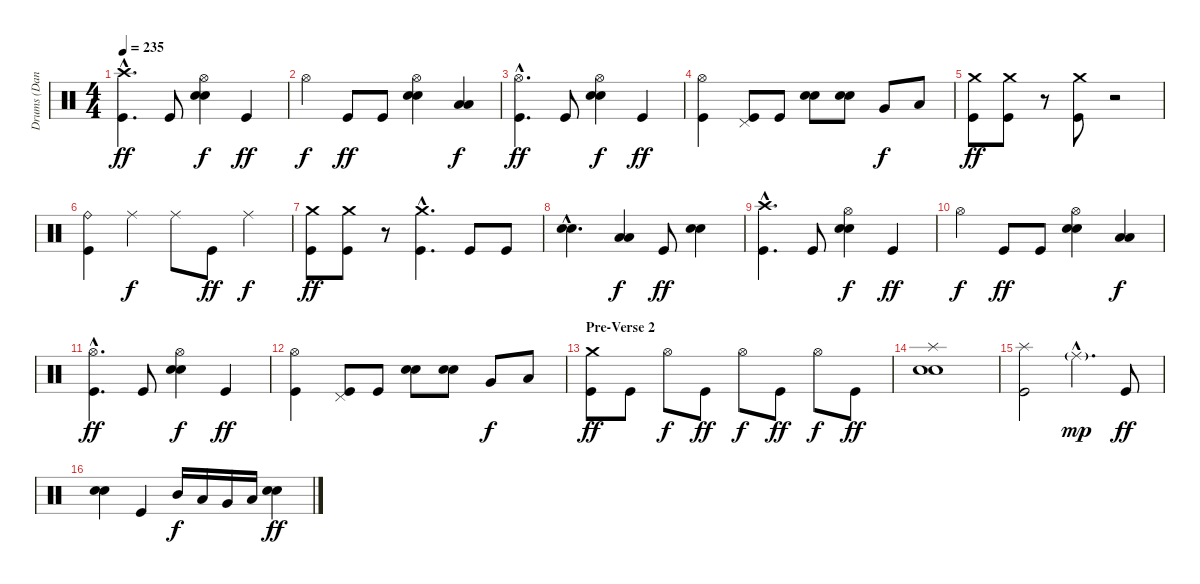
\track ("Drums (Dan)" "Drums (Dan") {instrument percussion}
\staff {score}
\articulation defaults
\ts (4 4)
\tempo 235
\clef neutral
\ks c
("Kick (hit)"{hac} "Crash high (hit)"{hac}).4{d dy ff} "Kick (hit)".8 ("Electric Snare (hit)" "Electric Snare (hit)" "Hi-Hat (open)").4{dy f} "Kick (hit)".4{dy ff} |
"Hi-Hat (open)".4{dy f} "Kick (hit)".8{dy ff} "Kick (hit)".8 ("Electric Snare (hit)" "Electric Snare (hit)" "Hi-Hat (open)").4 ("Low Floor Tom (hit)" "Low Floor Tom (hit)").4{dy f} |
("Kick (hit)"{hac} "Hi-Hat (open)"{hac}).4{d dy ff} "Kick (hit)".8 ("Electric Snare (hit)" "Electric Snare (hit)" "Hi-Hat (open)").4{dy f} "Kick (hit)".4{dy ff} |
("Kick (hit)" "Hi-Hat (open)").4 ("Kick (hit)" "Pedal Hi-Hat (hit)").8 "Kick (hit)".8 ("Electric Snare (hit)" "Electric Snare (hit)").8 ("Electric Snare (hit)" "Electric Snare (hit)").8 "Very Low Tom (hit)".8{dy f} "Low Floor Tom (hit)".8 |
("Kick (hit)" "Crash medium (hit)").8{dy ff} ("Kick (hit)" "Crash medium (hit)").8 r.8{volume 5} ("Kick (hit)" "Crash medium (hit)").8{volume 13} r.2 |
("Kick (hit)" "Ride (bell)").4 "Ride (middle)".4{dy f} "Ride (middle)".8 "Kick (hit)".8{dy ff} "Ride (middle)".4{dy f} |
("Kick (hit)" "Crash medium (hit)").8{dy ff} ("Kick (hit)" "Crash medium (hit)").8 r.8{volume 5} ("Kick (hit)"{hac} "Crash medium (hit)"{hac}).4{d volume 13} "Kick (hit)".8 "Kick (hit)".8 |
("Electric Snare (hit)"{hac} "Electric Snare (hit)"{hac}).4{d} ("Low Floor Tom (hit)" "Low Floor Tom (hit)").4{dy f} "Kick (hit)".8{dy ff} ("Electric Snare (hit)" "Electric Snare (hit)").4 |
("Kick (hit)"{hac} "Crash high (hit)"{hac}).4{d} "Kick (hit)".8 ("Electric Snare (hit)" "Electric Snare (hit)" "Hi-Hat (open)").4{dy f} "Kick (hit)".4{dy ff} |
"Hi-Hat (open)".4{dy f} "Kick (hit)".8{dy ff} "Kick (hit)".8 ("Electric Snare (hit)" "Electric Snare (hit)" "Hi-Hat (open)").4 ("Low Floor Tom (hit)" "Low Floor Tom (hit)").4{dy f} |
("Kick (hit)"{hac} "Hi-Hat (open)"{hac}).4{d dy ff} "Kick (hit)".8 ("Electric Snare (hit)" "Electric Snare (hit)" "Hi-Hat (open)").4{dy f} "Kick (hit)".4{dy ff} |
("Kick (hit)" "Hi-Hat (open)").4 ("Kick (hit)" "Pedal Hi-Hat (hit)").8 "Kick (hit)".8 ("Electric Snare (hit)" "Electric Snare (hit)").8 ("Electric Snare (hit)" "Electric Snare (hit)").8 "Very Low Tom (hit)".8{dy f} "Low Floor Tom (hit)".8 |
\section ("" "Pre-Verse 2")
("Kick (hit)" "Crash medium (hit)").8{dy ff} "Kick (hit)".8 "Hi-Hat (open)".8{dy f} "Kick (hit)".8{dy ff} "Hi-Hat (open)".8{dy f} "Kick (hit)".8{dy ff} "Hi-Hat (open)".8{dy f} "Kick (hit)".8{dy ff} |
("Electric Snare (hit)" "Electric Snare (hit)" "Splash (hit)").1 |
("Kick (hit)" "Splash (hit)").2 "Ride (middle)"{g hac}.4{d dy mp} "Kick (hit)".8{dy ff} |
("Electric Snare (hit)" "Electric Snare (hit)").4 "Kick (hit)".4 "Mid Tom (hit)".16{dy f} "Low Tom (hit)".16 "Very Low Tom (hit)".16 "Low Floor Tom (hit)".16 ("Electric Snare (hit)" "Electric Snare (hit)").4{dy ff}
